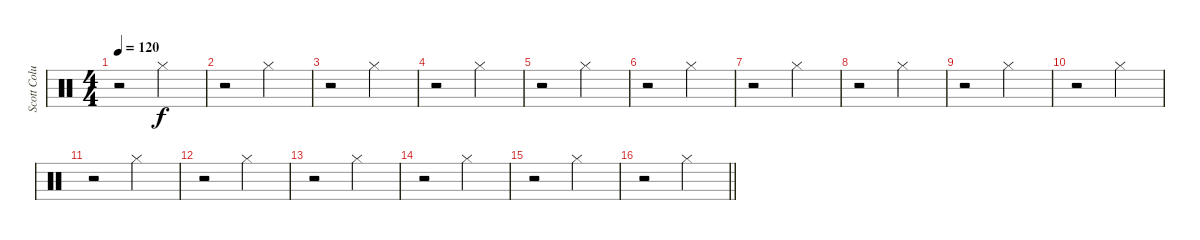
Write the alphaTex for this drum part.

\track ("Scott Columbus" "Scott Colu") {instrument percussion}
\staff {score}
\articulation defaults
\ts (4 4)
\tempo 120
\clef neutral
\ks c
r.2{dy f} "Hi-Hat (closed)".2 |
r.2 "Hi-Hat (closed)".2 |
r.2 "Hi-Hat (closed)".2 |
r.2 "Hi-Hat (closed)".2 |
r.2 "Hi-Hat (closed)".2 |
r.2 "Hi-Hat (closed)".2 |
r.2 "Hi-Hat (closed)".2 |
r.2 "Hi-Hat (closed)".2 |
r.2 "Hi-Hat (closed)".2 |
r.2 "Hi-Hat (closed)".2 |
r.2 "Hi-Hat (closed)".2 |
r.2 "Hi-Hat (closed)".2 |
r.2 "Hi-Hat (closed)".2 |
r.2 "Hi-Hat (closed)".2 |
r.2 "Hi-Hat (closed)".2 |
\barLineRight lightlight
r.2 "Hi-Hat (closed)".2
